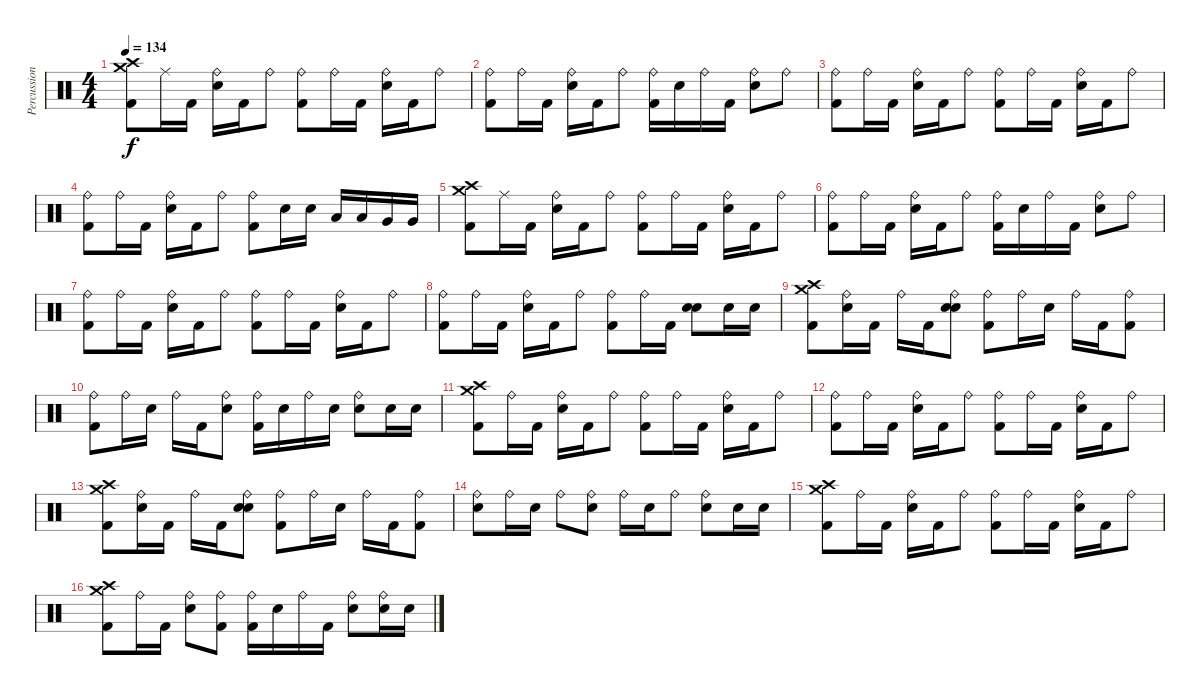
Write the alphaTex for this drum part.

\track ("Percussion" "Percussion") {instrument percussion}
\staff {score}
\articulation defaults
\ts (4 4)
\tempo 134
\clef neutral
\ks c
("Crash medium (hit)" "Crash high (hit)" "Kick (hit) 2").8{dy f} "Ride (middle)".16 "Kick (hit) 2".16 ("Ride (bell)" "Snare (hit) 2").16 "Kick (hit) 2".16 "Ride (bell)".8 ("Ride (bell)" "Kick (hit) 2").8 "Ride (bell)".16 "Kick (hit) 2".16 ("Ride (bell)" "Snare (hit) 2").16 "Kick (hit) 2".16 "Ride (bell)".8 |
("Ride (bell)" "Kick (hit) 2").8 "Ride (bell)".16 "Kick (hit) 2".16 ("Ride (bell)" "Snare (hit) 2").16 "Kick (hit) 2".16 "Ride (bell)".8 ("Ride (bell)" "Kick (hit) 2").16 "Snare (hit) 2".16 "Ride (bell)".16 "Kick (hit) 2".16 ("Ride (bell)" "Snare (hit) 2").8 "Ride (bell)".8 |
("Ride (bell)" "Kick (hit) 2").8 "Ride (bell)".16 "Kick (hit) 2".16 ("Ride (bell)" "Snare (hit) 2").16 "Kick (hit) 2".16 "Ride (bell)".8 ("Ride (bell)" "Kick (hit) 2").8 "Ride (bell)".16 "Kick (hit) 2".16 ("Ride (bell)" "Snare (hit) 2").16 "Kick (hit) 2".16 "Ride (bell)".8 |
("Ride (bell)" "Kick (hit) 2").8 "Ride (bell)".16 "Kick (hit) 2".16 ("Ride (bell)" "Snare (hit) 2").16 "Kick (hit) 2".16 "Ride (bell)".8 ("Ride (bell)" "Kick (hit) 2").8 "Snare (hit) 2".16 "Snare (hit) 2".16 "Low Tom (hit)".16 "Low Tom (hit)".16 "Very Low Tom (hit)".16 "Very Low Tom (hit)".16 |
("Crash medium (hit)" "Crash high (hit)" "Kick (hit) 2").8 "Ride (middle)".16 "Kick (hit) 2".16 ("Ride (bell)" "Snare (hit) 2").16 "Kick (hit) 2".16 "Ride (bell)".8 ("Ride (bell)" "Kick (hit) 2").8 "Ride (bell)".16 "Kick (hit) 2".16 ("Ride (bell)" "Snare (hit) 2").16 "Kick (hit) 2".16 "Ride (bell)".8 |
("Ride (bell)" "Kick (hit) 2").8 "Ride (bell)".16 "Kick (hit) 2".16 ("Ride (bell)" "Snare (hit) 2").16 "Kick (hit) 2".16 "Ride (bell)".8 ("Ride (bell)" "Kick (hit) 2").16 "Snare (hit) 2".16 "Ride (bell)".16 "Kick (hit) 2".16 ("Ride (bell)" "Snare (hit) 2").8 "Ride (bell)".8 |
("Ride (bell)" "Kick (hit) 2").8 "Ride (bell)".16 "Kick (hit) 2".16 ("Ride (bell)" "Snare (hit) 2").16 "Kick (hit) 2".16 "Ride (bell)".8 ("Ride (bell)" "Kick (hit) 2").8 "Ride (bell)".16 "Kick (hit) 2".16 ("Ride (bell)" "Snare (hit) 2").16 "Kick (hit) 2".16 "Ride (bell)".8 |
("Ride (bell)" "Kick (hit) 2").8 "Ride (bell)".16 "Kick (hit) 2".16 ("Ride (bell)" "Snare (hit) 2").16 "Kick (hit) 2".16 "Ride (bell)".8 ("Ride (bell)" "Kick (hit) 2").8 "Ride (bell)".16 "Kick (hit) 2".16 ("Snare (hit) 2" "Electric Snare (hit)").8 "Snare (hit) 2".16 "Snare (hit) 2".16 |
("Crash high (hit)" "Crash medium (hit)" "Kick (hit) 2").8 ("Ride (bell)" "Snare (hit) 2").16 "Kick (hit) 2".16 "Ride (bell)".16 "Kick (hit) 2".16 ("Ride (bell)" "Electric Snare (hit)" "Snare (hit) 2").8 ("Ride (bell)" "Kick (hit) 2").8 "Ride (bell)".16 "Snare (hit) 2".16 "Ride (bell)".16 "Kick (hit) 2".16 ("Ride (bell)" "Kick (hit) 2").8 |
("Ride (bell)" "Kick (hit) 2").8 "Ride (bell)".16 "Snare (hit) 2".16 "Ride (bell)".16 "Kick (hit) 2".16 ("Ride (bell)" "Snare (hit) 2").8 ("Ride (bell)" "Kick (hit) 2").16 "Snare (hit) 2".16 "Ride (bell)".16 "Snare (hit) 2".16 ("Ride (bell)" "Snare (hit) 2").8 "Snare (hit) 2".16 "Snare (hit) 2".16 |
("Crash high (hit)" "Crash medium (hit)" "Kick (hit) 2").8 "Ride (bell)".16 "Kick (hit) 2".16 ("Ride (bell)" "Snare (hit) 2").16 "Kick (hit) 2".16 "Ride (bell)".8 ("Ride (bell)" "Kick (hit) 2").8 "Ride (bell)".16 "Kick (hit) 2".16 ("Ride (bell)" "Snare (hit) 2").16 "Kick (hit) 2".16 "Ride (bell)".8 |
("Ride (bell)" "Kick (hit) 2").8 "Ride (bell)".16 "Kick (hit) 2".16 ("Ride (bell)" "Snare (hit) 2").16 "Kick (hit) 2".16 "Ride (bell)".8 ("Ride (bell)" "Kick (hit) 2").8 "Ride (bell)".16 "Kick (hit) 2".16 ("Ride (bell)" "Snare (hit) 2").16 "Kick (hit) 2".16 "Ride (bell)".8 |
("Crash high (hit)" "Crash medium (hit)" "Kick (hit) 2").8 ("Ride (bell)" "Snare (hit) 2").16 "Kick (hit) 2".16 "Ride (bell)".16 "Kick (hit) 2".16 ("Ride (bell)" "Electric Snare (hit)" "Snare (hit) 2").8 ("Ride (bell)" "Kick (hit) 2").8 "Ride (bell)".16 "Snare (hit) 2".16 "Ride (bell)".16 "Kick (hit) 2".16 ("Ride (bell)" "Kick (hit) 2").8 |
("Ride (bell)" "Snare (hit) 2").8 "Ride (bell)".16 "Snare (hit) 2".16 "Ride (bell)".8 ("Ride (bell)" "Snare (hit) 2").8 "Ride (bell)".16 "Snare (hit) 2".16 "Ride (bell)".8 ("Ride (bell)" "Snare (hit) 2").8 "Snare (hit) 2".16 "Snare (hit) 2".16 |
("Crash high (hit)" "Crash medium (hit)" "Kick (hit) 2").8 "Ride (bell)".16 "Kick (hit) 2".16 ("Ride (bell)" "Snare (hit) 2").16 "Kick (hit) 2".16 "Ride (bell)".8 ("Ride (bell)" "Kick (hit) 2").8 "Ride (bell)".16 "Kick (hit) 2".16 ("Ride (bell)" "Snare (hit) 2").16 "Kick (hit) 2".16 "Ride (bell)".8 |
("Crash high (hit)" "Crash medium (hit)" "Kick (hit) 2").8 "Ride (bell)".16 "Kick (hit) 2".16 ("Ride (bell)" "Snare (hit) 2").8 ("Ride (bell)" "Kick (hit) 2").8 ("Ride (bell)" "Kick (hit) 2").16 "Snare (hit) 2".16 "Ride (bell)".16 "Kick (hit) 2".16 ("Ride (bell)" "Snare (hit) 2").8 ("Ride (bell)" "Snare (hit) 2").16 "Snare (hit) 2".16
